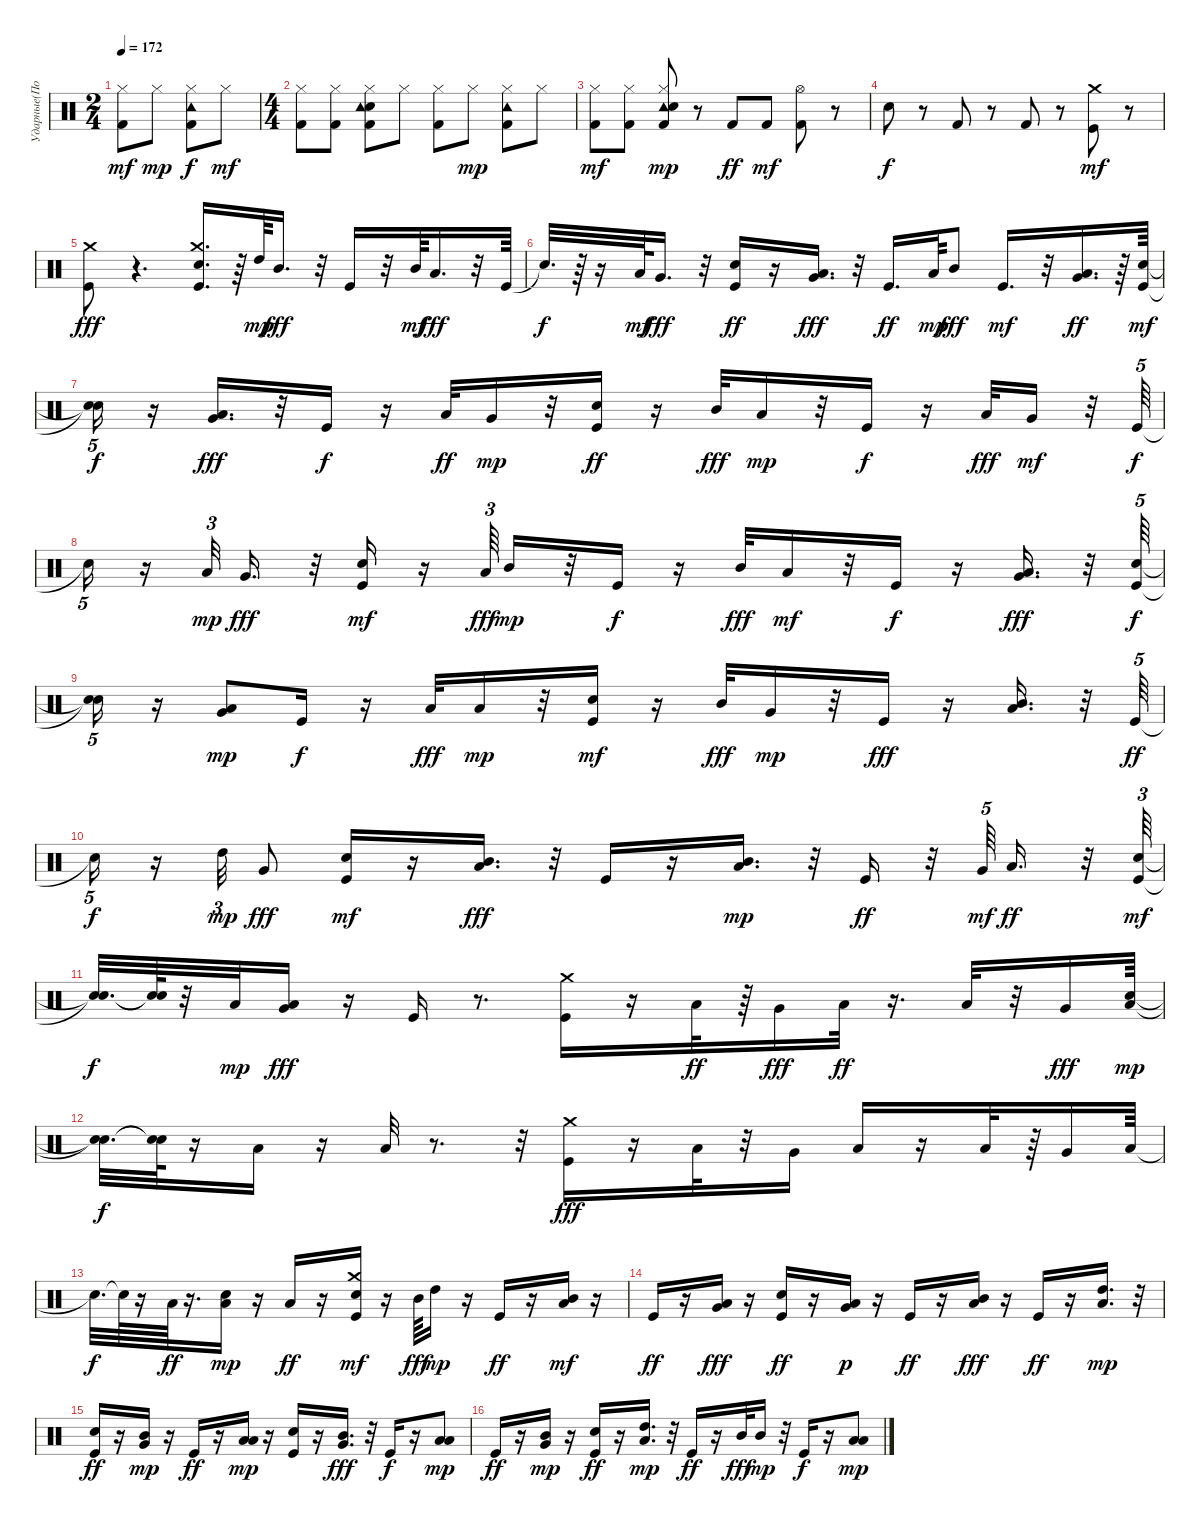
\track ("Ударные(Потапкин)" "Ударные(По") {instrument percussion}
\staff {score}
\articulation defaults
\ts (2 4)
\tempo 172
\clef neutral
\ks c
("Kick (hit) 2" "Hi-Hat (closed)").8{dy mf} "Hi-Hat (closed)".8{dy mp} ("Tambourine (hit)" "Kick (hit) 2" "Hi-Hat (closed)").8{dy f} "Hi-Hat (closed)".8{dy mf} |
\ts (4 4)
("Kick (hit) 2" "Hi-Hat (closed)").8 ("Kick (hit) 2" "Hi-Hat (closed)").8 ("Snare (hit) 2" "Kick (hit) 2" "Tambourine (hit)" "Hi-Hat (closed)").8 "Hi-Hat (closed)".8 ("Kick (hit) 2" "Hi-Hat (closed)").8 "Hi-Hat (closed)".8{dy mp} ("Tambourine (hit)" "Kick (hit) 2" "Hi-Hat (closed)").8 "Hi-Hat (closed)".8 |
("Kick (hit) 2" "Hi-Hat (closed)").8{dy mf} ("Kick (hit) 2" "Hi-Hat (closed)").8 ("Tambourine (hit)" "Kick (hit) 2" "Hi-Hat (closed)" "Snare (hit) 2").8{dy mp} r.8 "Kick (hit) 2".8{dy ff} "Kick (hit) 2".8{dy mf} ("Kick (hit) 2" "Hi-Hat (open)").8 r.8 |
"Snare (hit) 2".8{dy f} r.8 "Kick (hit) 2".8 r.8 "Kick (hit) 2".8 r.8 ("Crash medium (hit)" "Kick (hit)").8{dy mf} r.8 |
("Crash medium (hit)" "Kick (hit)").8{dy fff} r.4{d} ("Snare (hit) 2" "Crash medium (hit)" "Kick (hit)").16{d} r.64 "High Tom (hit)".64{dy mp} "Mid Tom (hit)".16{d dy fff} r.32 "Kick (hit)".16 r.32 "Mid Tom (hit)".64{dy mf} "Low Tom (hit)".16{d dy fff} r.32 "Kick (hit)".64 |
"Snare (hit)"{t}.32{d dy f} r.64 r.16 "Low Tom (hit)".64{dy mf} "Very Low Tom (hit)".16{d dy fff} r.32 ("Snare (hit) 2" "Kick (hit)").16{dy ff} r.16 ("Very Low Tom (hit)" "Low Floor Tom (hit)").16{d dy fff} r.32 "Kick (hit)".16{d dy ff} "Low Floor Tom (hit)".64{dy mp} "Mid Tom (hit)".8{dy fff} "Kick (hit)".16{d dy mf} r.32 ("Very Low Tom (hit)" "Low Tom (hit)").16{d dy ff} r.64 ("Kick (hit)" "Snare (hit) 2").64{dy mf} |
("Snare (hit)"{t} "Snare (hit)"{t}).16{tu (5 4) dy f} r.16 ("Low Tom (hit)" "Very Low Tom (hit)").16{d dy fff} r.32 "Kick (hit)".16{dy f} r.16 "Low Floor Tom (hit)".32{dy ff} "Very Low Tom (hit)".16{dy mp} r.32 ("Snare (hit) 2" "Kick (hit)").16{dy ff} r.16 "Mid Tom (hit)".32{dy fff} "Low Floor Tom (hit)".16{dy mp} r.32 "Kick (hit)".16{dy f} r.16 "Low Tom (hit)".32{dy fff} "Very Low Tom (hit)".16{dy mf} r.32 "Kick (hit)".64{tu (5 4) dy f} |
"Snare (hit)"{t}.16{tu (5 4)} r.16 "Low Tom (hit)".32{tu (3 2) dy mp} "Very Low Tom (hit)".16{d dy fff} r.32 ("Kick (hit)" "Snare (hit) 2").16{dy mf} r.16 "Low Floor Tom (hit)".64{tu (3 2) dy fff} "Mid Tom (hit)".16{dy mp} r.32 "Kick (hit)".16{dy f} r.16 "Mid Tom (hit)".32{dy fff} "Low Tom (hit)".16{dy mf} r.32 "Kick (hit)".16{dy f} r.16 ("Very Low Tom (hit)" "Low Tom (hit)").16{d dy fff} r.32 ("Kick (hit)" "Snare (hit) 2").64{tu (5 4) dy f} |
("Snare (hit)"{t} "Snare (hit)"{t}).16{tu (5 4)} r.16 ("Very Low Tom (hit)" "Low Floor Tom (hit)").8{dy mp} "Kick (hit)".16{dy f} r.16 "Low Floor Tom (hit)".32{dy fff} "Low Tom (hit)".16{dy mp} r.32 ("Kick (hit)" "Snare (hit) 2").16{dy mf} r.16 "Mid Tom (hit)".32{dy fff} "Very Low Tom (hit)".16{dy mp} r.32 "Kick (hit)".16{dy fff} r.16 ("Mid Tom (hit)" "Low Tom (hit)").16{d} r.32 "Kick (hit)".64{tu (5 4) dy ff} |
"Snare (hit)"{t}.16{tu (5 4) dy f} r.16 "High Tom (hit)".32{tu (3 2) dy mp} "Very Low Tom (hit)".8{dy fff} ("Kick (hit)" "Snare (hit) 2").16{dy mf} r.16 ("Mid Tom (hit)" "Low Floor Tom (hit)").16{d dy fff} r.32 "Kick (hit)".16 r.16 ("Mid Tom (hit)" "Low Tom (hit)").16{d dy mp} r.32 "Kick (hit)".16{dy ff} r.32 "Very Low Tom (hit)".64{tu (5 4) dy mf} "Low Tom (hit)".16{d dy ff} r.32 ("Kick (hit)" "Snare (hit) 2").64{tu (3 2) dy mf} |
("Snare (hit)"{t} "Snare (hit)"{t}).32{d dy f} ("Snare (hit)"{t} "Snare (hit)"{t}).64 r.32 "Low Floor Tom (hit)".32{dy mp} ("Low Floor Tom (hit)" "Very Low Tom (hit)").16{dy fff} r.16 "Kick (hit)".16 r.8{d} ("Kick (hit)" "Crash medium (hit)").16 r.16 "Low Tom (hit)".32{dy ff} r.64 "Very Low Tom (hit)".16{dy fff} "Low Tom (hit)".32{dy ff} r.16{d} "Low Tom (hit)".32 r.32 "Very Low Tom (hit)".16{dy fff} ("Low Tom (hit)" "Snare (hit) 2").64{dy mp} |
("Snare (hit)"{t} "Snare (hit)"{t}).32{d dy f} ("Snare (hit)"{t} "Snare (hit)"{t}).64 r.16 "Low Tom (hit)".16 r.16 "Low Tom (hit)".32 r.8{d} r.32 ("Crash medium (hit)" "Kick (hit)").16{dy fff} r.16 "Low Tom (hit)".32 r.32 "Very Low Tom (hit)".16 "Low Tom (hit)".16 r.16 "Low Tom (hit)".32 r.64 "Very Low Tom (hit)".16 "Low Tom (hit)".64 |
"Snare (hit)"{t}.32{d dy f} "Snare (hit)"{t}.64 r.16 "Low Tom (hit)".64{dy ff} r.16{d} ("Low Tom (hit)" "Snare (hit) 2").16{dy mp} r.16 "Low Tom (hit)".16{dy ff} r.16 ("Crash medium (hit)" "Kick (hit)" "Snare (hit) 2").16{dy mf} r.16 "Mid Tom (hit)".64{dy fff} "High Tom (hit)".16{dy mp} r.16 "Kick (hit)".16{dy ff} r.16 ("Low Tom (hit)" "Mid Tom (hit)").16{dy mf} r.16 |
"Kick (hit)".16{dy ff} r.16 ("Low Tom (hit)" "Very Low Tom (hit)").16{dy fff} r.16 ("Snare (hit) 2" "Kick (hit)").16{dy ff} r.16 ("Low Floor Tom (hit)" "Very Low Tom (hit)").16{dy p} r.16 "Kick (hit)".16{dy ff} r.16 ("Low Floor Tom (hit)" "Mid Tom (hit)").16{dy fff} r.16 "Kick (hit)".16{dy ff} r.16 ("Low Tom (hit)" "High Tom (hit)").16{d dy mp} r.32 |
("Snare (hit) 2" "Kick (hit)").16{dy ff} r.16 ("Very Low Tom (hit)" "Mid Tom (hit)").16{dy mp} r.16 "Kick (hit)".16{dy ff} r.16 ("Low Floor Tom (hit)" "Low Tom (hit)").16{dy mp} r.16 ("Snare (hit) 2" "Kick (hit)").16 r.16 ("Very Low Tom (hit)" "Mid Tom (hit)").16{d dy fff} r.32 "Kick (hit)".16{dy f} r.16 ("Low Tom (hit)" "Low Tom (hit)").8{dy mp} |
"Kick (hit)".16{dy ff} r.16 ("Very Low Tom (hit)" "Mid Tom (hit)").16{dy mp} r.16 ("Snare (hit) 2" "Kick (hit)").16{dy ff} r.16 ("Low Floor Tom (hit)" "High Tom (hit)").16{d dy mp} r.32 "Kick (hit)".16{dy ff} r.16 "Mid Tom (hit)".32{dy fff} "Mid Tom (hit)".16{dy mp} r.32 "Kick (hit)".16{dy f} r.16 ("Low Tom (hit)" "Low Tom (hit)").8{dy mp}
